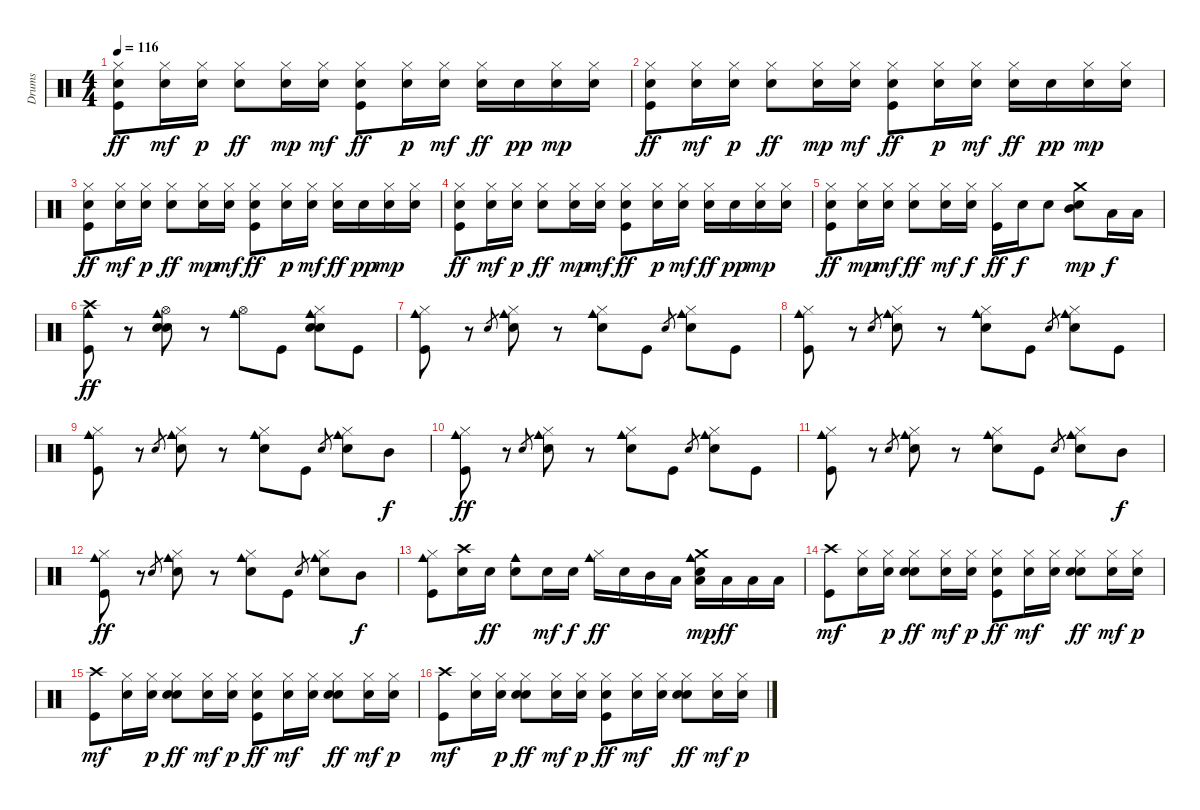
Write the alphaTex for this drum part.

\track ("Drums" "Drums") {instrument percussion}
\staff {score}
\articulation defaults
\ts (4 4)
\tempo 116
\clef neutral
\ks c
("Kick (hit)" "Snare (hit) 2" "Hi-Hat (closed)").8{dy ff} ("Snare (hit) 2" "Hi-Hat (closed)").16{dy mf} ("Snare (hit) 2" "Hi-Hat (closed)").16{dy p} ("Electric Snare (hit)" "Hi-Hat (closed)").8{dy ff} ("Snare (hit) 2" "Hi-Hat (closed)").16{dy mp} ("Snare (hit) 2" "Hi-Hat (closed)").16{dy mf} ("Kick (hit)" "Snare (hit) 2" "Hi-Hat (closed)").8{dy ff} ("Snare (hit) 2" "Hi-Hat (closed)").16{dy p} ("Snare (hit) 2" "Hi-Hat (closed)").16{dy mf} ("Electric Snare (hit)" "Hi-Hat (closed)").16{dy ff} "Snare (hit) 2".16{dy pp} ("Snare (hit) 2" "Hi-Hat (closed)").16{dy mp} ("Snare (hit) 2" "Hi-Hat (closed)").16 |
("Kick (hit)" "Snare (hit) 2" "Hi-Hat (closed)").8{dy ff} ("Snare (hit) 2" "Hi-Hat (closed)").16{dy mf} ("Snare (hit) 2" "Hi-Hat (closed)").16{dy p} ("Electric Snare (hit)" "Hi-Hat (closed)").8{dy ff} ("Snare (hit) 2" "Hi-Hat (closed)").16{dy mp} ("Snare (hit) 2" "Hi-Hat (closed)").16{dy mf} ("Kick (hit)" "Snare (hit) 2" "Hi-Hat (closed)").8{dy ff} ("Snare (hit) 2" "Hi-Hat (closed)").16{dy p} ("Snare (hit) 2" "Hi-Hat (closed)").16{dy mf} ("Electric Snare (hit)" "Hi-Hat (closed)").16{dy ff} "Snare (hit) 2".16{dy pp} ("Snare (hit) 2" "Hi-Hat (closed)").16{dy mp} ("Snare (hit) 2" "Hi-Hat (closed)").16 |
("Kick (hit)" "Snare (hit) 2" "Hi-Hat (closed)").8{dy ff} ("Snare (hit) 2" "Hi-Hat (closed)").16{dy mf} ("Snare (hit) 2" "Hi-Hat (closed)").16{dy p} ("Electric Snare (hit)" "Hi-Hat (closed)").8{dy ff} ("Snare (hit) 2" "Hi-Hat (closed)").16{dy mp} ("Snare (hit) 2" "Hi-Hat (closed)").16{dy mf} ("Kick (hit)" "Snare (hit) 2" "Hi-Hat (closed)").8{dy ff} ("Snare (hit) 2" "Hi-Hat (closed)").16{dy p} ("Snare (hit) 2" "Hi-Hat (closed)").16{dy mf} ("Electric Snare (hit)" "Hi-Hat (closed)").16{dy ff} "Snare (hit) 2".16{dy pp} ("Snare (hit) 2" "Hi-Hat (closed)").16{dy mp} ("Snare (hit) 2" "Hi-Hat (closed)").16 |
("Kick (hit)" "Snare (hit) 2" "Hi-Hat (closed)").8{dy ff} ("Snare (hit) 2" "Hi-Hat (closed)").16{dy mf} ("Snare (hit) 2" "Hi-Hat (closed)").16{dy p} ("Electric Snare (hit)" "Hi-Hat (closed)").8{dy ff} ("Snare (hit) 2" "Hi-Hat (closed)").16{dy mp} ("Snare (hit) 2" "Hi-Hat (closed)").16{dy mf} ("Kick (hit)" "Snare (hit) 2" "Hi-Hat (closed)").8{dy ff} ("Snare (hit) 2" "Hi-Hat (closed)").16{dy p} ("Snare (hit) 2" "Hi-Hat (closed)").16{dy mf} ("Electric Snare (hit)" "Hi-Hat (closed)").16{dy ff} "Snare (hit) 2".16{dy pp} ("Snare (hit) 2" "Hi-Hat (closed)").16{dy mp} ("Snare (hit) 2" "Hi-Hat (closed)").16 |
("Kick (hit)" "Snare (hit) 2" "Hi-Hat (closed)").8{dy ff} ("Snare (hit) 2" "Hi-Hat (closed)").16{dy mp} ("Snare (hit) 2" "Hi-Hat (closed)").16{dy mf} ("Electric Snare (hit)" "Hi-Hat (closed)").8{dy ff} ("Snare (hit) 2" "Hi-Hat (closed)").16{dy mf} ("Snare (hit) 2" "Hi-Hat (closed)").16{dy f} ("Kick (hit)" "Hi-Hat (closed)").16{dy ff} "Snare (hit) 2".16{dy f} "Snare (hit) 2".8 ("Electric Snare (hit)" "Mid Tom (hit)" "Crash medium (hit)").8{dy mp} "Low Tom (hit)".16{dy f} "Low Floor Tom (hit)".16 |
("Crash high (hit)" "Kick (hit)" "Cowbell medium (hit)").8{dy ff} r.8 ("Snare (hit) 2" "Electric Snare (hit)" "Hi-Hat (open)" "Cowbell medium (hit)").8 r.8 ("Hi-Hat (open)" "Cowbell medium (hit)").8 "Kick (hit)".8 ("Hi-Hat (closed)" "Snare (hit) 2" "Electric Snare (hit)" "Cowbell medium (hit)").8 "Kick (hit)".8 |
("Kick (hit)" "Hi-Hat (closed)" "Cowbell medium (hit)").8 r.8 "Electric Snare (hit)".8{gr} ("Snare (hit) 2" "Hi-Hat (closed)" "Cowbell medium (hit)").8 r.8 ("Snare (hit) 2" "Hi-Hat (closed)" "Cowbell medium (hit)").8 "Kick (hit)".8 "Electric Snare (hit)".8{gr} ("Snare (hit) 2" "Hi-Hat (closed)" "Cowbell medium (hit)").8 "Kick (hit)".8 |
("Kick (hit)" "Hi-Hat (closed)" "Cowbell medium (hit)").8 r.8 "Electric Snare (hit)".8{gr} ("Snare (hit) 2" "Hi-Hat (closed)" "Cowbell medium (hit)").8 r.8 ("Snare (hit) 2" "Hi-Hat (closed)" "Cowbell medium (hit)").8 "Kick (hit)".8 "Electric Snare (hit)".8{gr} ("Snare (hit) 2" "Hi-Hat (closed)" "Cowbell medium (hit)").8 "Kick (hit)".8 |
("Kick (hit)" "Hi-Hat (closed)" "Cowbell medium (hit)").8 r.8 "Electric Snare (hit)".8{gr} ("Snare (hit) 2" "Hi-Hat (closed)" "Cowbell medium (hit)").8 r.8 ("Snare (hit) 2" "Hi-Hat (closed)" "Cowbell medium (hit)").8 "Kick (hit)".8 "Electric Snare (hit)".8{gr} ("Snare (hit) 2" "Hi-Hat (closed)" "Cowbell medium (hit)").8 "Mid Tom (hit)".8{dy f} |
("Kick (hit)" "Hi-Hat (closed)" "Cowbell medium (hit)").8{dy ff} r.8 "Electric Snare (hit)".8{gr} ("Snare (hit) 2" "Hi-Hat (closed)" "Cowbell medium (hit)").8 r.8 ("Snare (hit) 2" "Hi-Hat (closed)" "Cowbell medium (hit)").8 "Kick (hit)".8 "Electric Snare (hit)".8{gr} ("Snare (hit) 2" "Hi-Hat (closed)" "Cowbell medium (hit)").8 "Kick (hit)".8 |
("Kick (hit)" "Hi-Hat (closed)" "Cowbell medium (hit)").8 r.8 "Electric Snare (hit)".8{gr} ("Snare (hit) 2" "Hi-Hat (closed)" "Cowbell medium (hit)").8 r.8 ("Snare (hit) 2" "Hi-Hat (closed)" "Cowbell medium (hit)").8 "Kick (hit)".8 "Electric Snare (hit)".8{gr} ("Snare (hit) 2" "Hi-Hat (closed)" "Cowbell medium (hit)").8 "Mid Tom (hit)".8{dy f} |
("Kick (hit)" "Hi-Hat (closed)" "Cowbell medium (hit)").8{dy ff} r.8 "Electric Snare (hit)".8{gr} ("Snare (hit) 2" "Hi-Hat (closed)" "Cowbell medium (hit)").8 r.8 ("Snare (hit) 2" "Hi-Hat (closed)" "Cowbell medium (hit)").8 "Kick (hit)".8 "Electric Snare (hit)".8{gr} ("Snare (hit) 2" "Hi-Hat (closed)" "Cowbell medium (hit)").8 "Mid Tom (hit)".8{dy f} |
("Kick (hit)" "Hi-Hat (closed)" "Cowbell medium (hit)").8 ("Snare (hit) 2" "Crash high (hit)").16 "Snare (hit) 2".16{dy ff} ("Electric Snare (hit)" "Cowbell medium (hit)").8 "Snare (hit) 2".16{dy mf} "Snare (hit) 2".16{dy f} ("Hi-Hat (closed)" "Cowbell medium (hit)").16{dy ff} "Snare (hit) 2".16 "Mid Tom (hit)".16 "Low Tom (hit)".16 ("Electric Snare (hit)" "Low Tom (hit)" "Cowbell medium (hit)" "Crash medium (hit)").16{dy mp} "Low Floor Tom (hit)".16{dy ff} "Low Floor Tom (hit)".16 "Low Floor Tom (hit)".16 |
("Kick (hit)" "Crash high (hit)").8{dy mf} ("Snare (hit) 2" "Hi-Hat (closed)").16 ("Snare (hit) 2" "Hi-Hat (closed)").16{dy p} ("Snare (hit) 2" "Electric Snare (hit)" "Hi-Hat (closed)").8{dy ff} ("Snare (hit) 2" "Hi-Hat (closed)").16{dy mf} ("Snare (hit) 2" "Hi-Hat (closed)").16{dy p} ("Kick (hit)" "Snare (hit) 2" "Hi-Hat (closed)").8{dy ff} ("Snare (hit) 2" "Hi-Hat (closed)").16{dy mf} ("Snare (hit) 2" "Hi-Hat (closed)").16 ("Snare (hit) 2" "Electric Snare (hit)" "Hi-Hat (closed)").8{dy ff} ("Snare (hit) 2" "Hi-Hat (closed)").16{dy mf} ("Snare (hit) 2" "Hi-Hat (closed)").16{dy p} |
("Kick (hit)" "Crash high (hit)").8{dy mf} ("Snare (hit) 2" "Hi-Hat (closed)").16 ("Snare (hit) 2" "Hi-Hat (closed)").16{dy p} ("Snare (hit) 2" "Electric Snare (hit)" "Hi-Hat (closed)").8{dy ff} ("Snare (hit) 2" "Hi-Hat (closed)").16{dy mf} ("Snare (hit) 2" "Hi-Hat (closed)").16{dy p} ("Kick (hit)" "Snare (hit) 2" "Hi-Hat (closed)").8{dy ff} ("Snare (hit) 2" "Hi-Hat (closed)").16{dy mf} ("Snare (hit) 2" "Hi-Hat (closed)").16 ("Snare (hit) 2" "Electric Snare (hit)" "Hi-Hat (closed)").8{dy ff} ("Snare (hit) 2" "Hi-Hat (closed)").16{dy mf} ("Snare (hit) 2" "Hi-Hat (closed)").16{dy p} |
("Kick (hit)" "Crash high (hit)").8{dy mf} ("Snare (hit) 2" "Hi-Hat (closed)").16 ("Snare (hit) 2" "Hi-Hat (closed)").16{dy p} ("Snare (hit) 2" "Electric Snare (hit)" "Hi-Hat (closed)").8{dy ff} ("Snare (hit) 2" "Hi-Hat (closed)").16{dy mf} ("Snare (hit) 2" "Hi-Hat (closed)").16{dy p} ("Kick (hit)" "Snare (hit) 2" "Hi-Hat (closed)").8{dy ff} ("Snare (hit) 2" "Hi-Hat (closed)").16{dy mf} ("Snare (hit) 2" "Hi-Hat (closed)").16 ("Snare (hit) 2" "Electric Snare (hit)" "Hi-Hat (closed)").8{dy ff} ("Snare (hit) 2" "Hi-Hat (closed)").16{dy mf} ("Snare (hit) 2" "Hi-Hat (closed)").16{dy p}
